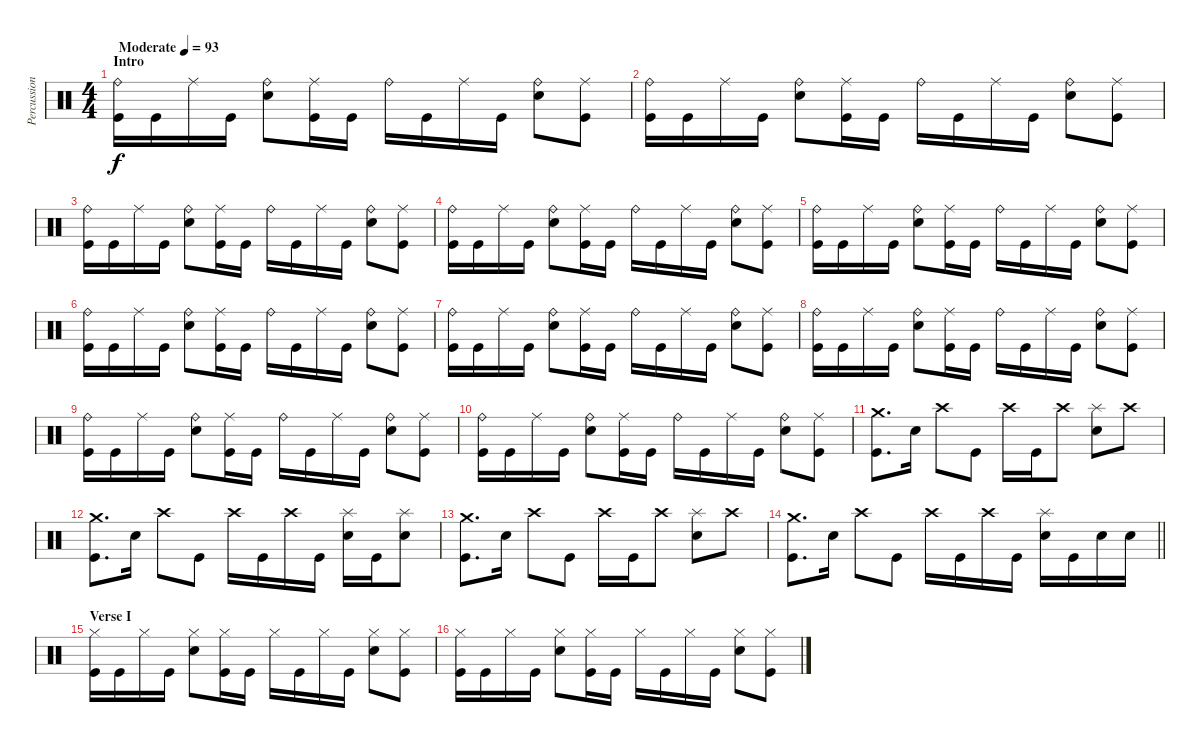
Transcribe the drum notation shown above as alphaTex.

\track ("Percussion" "Percussion") {instrument percussion}
\staff {score}
\articulation defaults
\ts (4 4)
\section ("" "Intro")
\tempo (93 "Moderate")
\clef neutral
\ks c
("Ride (bell)" "Kick (hit)").16{dy f} "Kick (hit)".16 "Ride (middle)".16 "Kick (hit)".16 ("Ride (bell)" "Electric Snare (hit)").8 ("Ride (middle)" "Kick (hit)").16 "Kick (hit)".16 "Ride (bell)".16 "Kick (hit)".16 "Ride (middle)".16 "Kick (hit)".16 ("Ride (bell)" "Electric Snare (hit)").8 ("Ride (middle)" "Kick (hit)").8 |
("Ride (bell)" "Kick (hit)").16 "Kick (hit)".16 "Ride (middle)".16 "Kick (hit)".16 ("Ride (bell)" "Electric Snare (hit)").8 ("Ride (middle)" "Kick (hit)").16 "Kick (hit)".16 "Ride (bell)".16 "Kick (hit)".16 "Ride (middle)".16 "Kick (hit)".16 ("Ride (bell)" "Electric Snare (hit)").8 ("Ride (middle)" "Kick (hit)").8 |
("Ride (bell)" "Kick (hit)").16 "Kick (hit)".16 "Ride (middle)".16 "Kick (hit)".16 ("Ride (bell)" "Electric Snare (hit)").8 ("Ride (middle)" "Kick (hit)").16 "Kick (hit)".16 "Ride (bell)".16 "Kick (hit)".16 "Ride (middle)".16 "Kick (hit)".16 ("Ride (bell)" "Electric Snare (hit)").8 ("Ride (middle)" "Kick (hit)").8 |
("Ride (bell)" "Kick (hit)").16 "Kick (hit)".16 "Ride (middle)".16 "Kick (hit)".16 ("Ride (bell)" "Electric Snare (hit)").8 ("Ride (middle)" "Kick (hit)").16 "Kick (hit)".16 "Ride (bell)".16 "Kick (hit)".16 "Ride (middle)".16 "Kick (hit)".16 ("Ride (bell)" "Electric Snare (hit)").8 ("Ride (middle)" "Kick (hit)").8 |
("Ride (bell)" "Kick (hit)").16 "Kick (hit)".16 "Ride (middle)".16 "Kick (hit)".16 ("Ride (bell)" "Electric Snare (hit)").8 ("Ride (middle)" "Kick (hit)").16 "Kick (hit)".16 "Ride (bell)".16 "Kick (hit)".16 "Ride (middle)".16 "Kick (hit)".16 ("Ride (bell)" "Electric Snare (hit)").8 ("Ride (middle)" "Kick (hit)").8 |
("Ride (bell)" "Kick (hit)").16 "Kick (hit)".16 "Ride (middle)".16 "Kick (hit)".16 ("Ride (bell)" "Electric Snare (hit)").8 ("Ride (middle)" "Kick (hit)").16 "Kick (hit)".16 "Ride (bell)".16 "Kick (hit)".16 "Ride (middle)".16 "Kick (hit)".16 ("Ride (bell)" "Electric Snare (hit)").8 ("Ride (middle)" "Kick (hit)").8 |
("Ride (bell)" "Kick (hit)").16 "Kick (hit)".16 "Ride (middle)".16 "Kick (hit)".16 ("Ride (bell)" "Electric Snare (hit)").8 ("Ride (middle)" "Kick (hit)").16 "Kick (hit)".16 "Ride (bell)".16 "Kick (hit)".16 "Ride (middle)".16 "Kick (hit)".16 ("Ride (bell)" "Electric Snare (hit)").8 ("Ride (middle)" "Kick (hit)").8 |
("Ride (bell)" "Kick (hit)").16 "Kick (hit)".16 "Ride (middle)".16 "Kick (hit)".16 ("Ride (bell)" "Electric Snare (hit)").8 ("Ride (middle)" "Kick (hit)").16 "Kick (hit)".16 "Ride (bell)".16 "Kick (hit)".16 "Ride (middle)".16 "Kick (hit)".16 ("Ride (bell)" "Electric Snare (hit)").8 ("Ride (middle)" "Kick (hit)").8 |
("Ride (bell)" "Kick (hit)").16 "Kick (hit)".16 "Ride (middle)".16 "Kick (hit)".16 ("Ride (bell)" "Electric Snare (hit)").8 ("Ride (middle)" "Kick (hit)").16 "Kick (hit)".16 "Ride (bell)".16 "Kick (hit)".16 "Ride (middle)".16 "Kick (hit)".16 ("Ride (bell)" "Electric Snare (hit)").8 ("Ride (middle)" "Kick (hit)").8 |
("Ride (bell)" "Kick (hit)").16 "Kick (hit)".16 "Ride (middle)".16 "Kick (hit)".16 ("Ride (bell)" "Electric Snare (hit)").8 ("Ride (middle)" "Kick (hit)").16 "Kick (hit)".16 "Ride (bell)".16 "Kick (hit)".16 "Ride (middle)".16 "Kick (hit)".16 ("Ride (bell)" "Electric Snare (hit)").8 ("Ride (middle)" "Kick (hit)").8 |
("Crash medium (hit)" "Kick (hit)").8{d} "Electric Snare (hit)".16 "Crash high (hit)".8 "Kick (hit)".8 "Crash high (hit)".16 "Kick (hit)".16 "Crash high (hit)".8 ("Splash (hit)" "Electric Snare (hit)").8 "Crash high (hit)".8 |
("Crash medium (hit)" "Kick (hit)").8{d} "Electric Snare (hit)".16 "Crash high (hit)".8 "Kick (hit)".8 "Crash high (hit)".16 "Kick (hit)".16 "Crash high (hit)".16 "Kick (hit)".16 ("Splash (hit)" "Electric Snare (hit)").16 "Kick (hit)".16 ("Splash (hit)" "Electric Snare (hit)").8 |
("Crash medium (hit)" "Kick (hit)").8{d} "Electric Snare (hit)".16 "Crash high (hit)".8 "Kick (hit)".8 "Crash high (hit)".16 "Kick (hit)".16 "Crash high (hit)".8 ("Splash (hit)" "Electric Snare (hit)").8 "Crash high (hit)".8 |
\barLineRight lightlight
("Crash medium (hit)" "Kick (hit)").8{d} "Electric Snare (hit)".16 "Crash high (hit)".8 "Kick (hit)".8 "Crash high (hit)".16 "Kick (hit)".16 "Crash high (hit)".16 "Kick (hit)".16 ("Splash (hit)" "Electric Snare (hit)").16 "Kick (hit)".16 "Electric Snare (hit)".16 "Electric Snare (hit)".16 |
\section ("" "Verse I")
("Hi-Hat (closed)" "Kick (hit)").16 "Kick (hit)".16 "Hi-Hat (closed)".16 "Kick (hit)".16 ("Hi-Hat (closed)" "Electric Snare (hit)").8 ("Hi-Hat (closed)" "Kick (hit)").16 "Kick (hit)".16 "Hi-Hat (closed)".16 "Kick (hit)".16 "Hi-Hat (closed)".16 "Kick (hit)".16 ("Hi-Hat (closed)" "Electric Snare (hit)").8 ("Hi-Hat (closed)" "Kick (hit)").8 |
("Hi-Hat (closed)" "Kick (hit)").16 "Kick (hit)".16 "Hi-Hat (closed)".16 "Kick (hit)".16 ("Hi-Hat (closed)" "Electric Snare (hit)").8 ("Hi-Hat (closed)" "Kick (hit)").16 "Kick (hit)".16 "Hi-Hat (closed)".16 "Kick (hit)".16 "Hi-Hat (closed)".16 "Kick (hit)".16 ("Hi-Hat (closed)" "Electric Snare (hit)").8 ("Hi-Hat (closed)" "Kick (hit)").8
